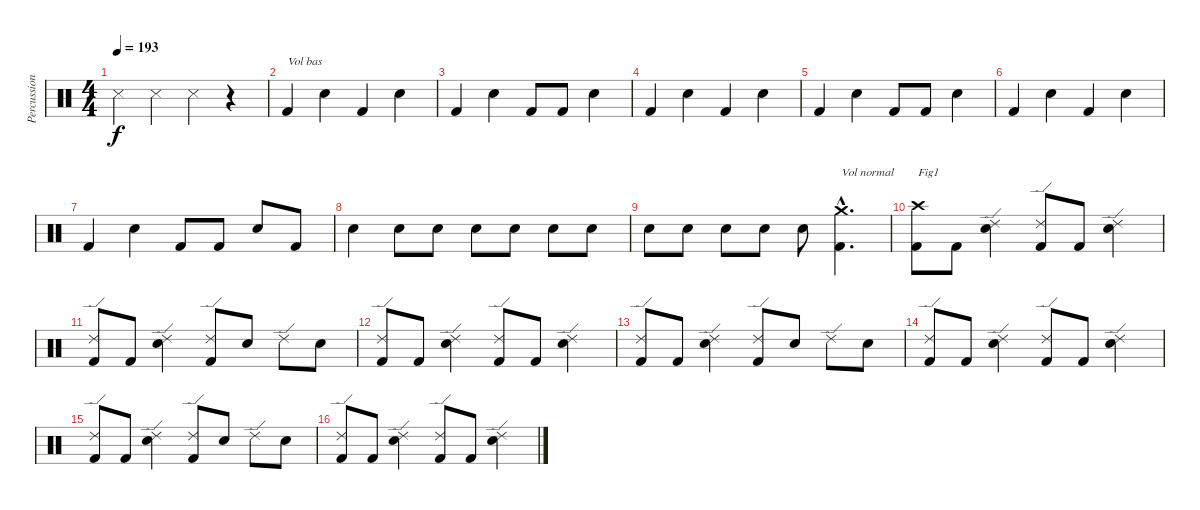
\track ("Percussions" "Percussion") {instrument percussion}
\staff {score}
\articulation defaults
\ts (4 4)
\tempo 193
\clef neutral
\ks c "Snare (side stick) 3".4{dy f} "Snare (side stick) 3".4 "Snare (side stick) 3".4
r.4 |
"Kick (hit) 2".4{txt "Vol bas" volume 7} "Electric Snare (hit)".4 "Kick (hit) 2".4 "Electric Snare (hit)".4 |
"Kick (hit) 2".4 "Electric Snare (hit)".4 "Kick (hit) 2".8 "Kick (hit) 2".8 "Electric Snare (hit)".4 |
"Kick (hit) 2".4 "Electric Snare (hit)".4 "Kick (hit) 2".4 "Electric Snare (hit)".4 |
"Kick (hit) 2".4 "Electric Snare (hit)".4 "Kick (hit) 2".8 "Kick (hit) 2".8 "Electric Snare (hit)".4 |
"Kick (hit) 2".4 "Electric Snare (hit)".4 "Kick (hit) 2".4 "Electric Snare (hit)".4 |
"Kick (hit) 2".4 "Electric Snare (hit)".4 "Kick (hit) 2".8 "Kick (hit) 2".8 "Electric Snare (hit)".8 "Kick (hit) 2".8 |
"Electric Snare (hit)".4 "Electric Snare (hit)".8{volume 2} "Electric Snare (hit)".8{volume 7} "Electric Snare (hit)".8 "Electric Snare (hit)".8 "Electric Snare (hit)".8 "Electric Snare (hit)".8 |
"Electric Snare (hit)".8 "Electric Snare (hit)".8 "Electric Snare (hit)".8 "Electric Snare (hit)".8 "Electric Snare (hit)".8 ("Kick (hit) 2"{hac} "Crash medium (hit)"{hac}).4{d txt "Vol normal" volume 16} |
("Kick (hit) 2" "Crash high (hit)").8{txt "Fig1"} "Kick (hit) 2".8 ("Electric Snare (hit)" "Ride (edge) 2").4 ("Kick (hit) 2" "Ride (edge) 2").8 "Kick (hit) 2".8 ("Electric Snare (hit)" "Ride (edge) 2").4 |
("Kick (hit) 2" "Ride (edge) 2").8 "Kick (hit) 2".8 ("Electric Snare (hit)" "Ride (edge) 2").4 ("Kick (hit) 2" "Ride (edge) 2").8 "Electric Snare (hit)".8 "Ride (edge) 2".8 "Electric Snare (hit)".8 |
("Kick (hit) 2" "Ride (edge) 2").8 "Kick (hit) 2".8 ("Electric Snare (hit)" "Ride (edge) 2").4 ("Kick (hit) 2" "Ride (edge) 2").8 "Kick (hit) 2".8 ("Electric Snare (hit)" "Ride (edge) 2").4 |
("Kick (hit) 2" "Ride (edge) 2").8 "Kick (hit) 2".8 ("Electric Snare (hit)" "Ride (edge) 2").4 ("Kick (hit) 2" "Ride (edge) 2").8 "Electric Snare (hit)".8 "Ride (edge) 2".8 "Electric Snare (hit)".8 |
("Kick (hit) 2" "Ride (edge) 2").8 "Kick (hit) 2".8 ("Electric Snare (hit)" "Ride (edge) 2").4 ("Kick (hit) 2" "Ride (edge) 2").8 "Kick (hit) 2".8 ("Electric Snare (hit)" "Ride (edge) 2").4 |
("Kick (hit) 2" "Ride (edge) 2").8 "Kick (hit) 2".8 ("Electric Snare (hit)" "Ride (edge) 2").4 ("Kick (hit) 2" "Ride (edge) 2").8 "Electric Snare (hit)".8 "Ride (edge) 2".8 "Electric Snare (hit)".8 |
("Kick (hit) 2" "Ride (edge) 2").8 "Kick (hit) 2".8 ("Electric Snare (hit)" "Ride (edge) 2").4 ("Kick (hit) 2" "Ride (edge) 2").8 "Kick (hit) 2".8 ("Electric Snare (hit)" "Ride (edge) 2").4
